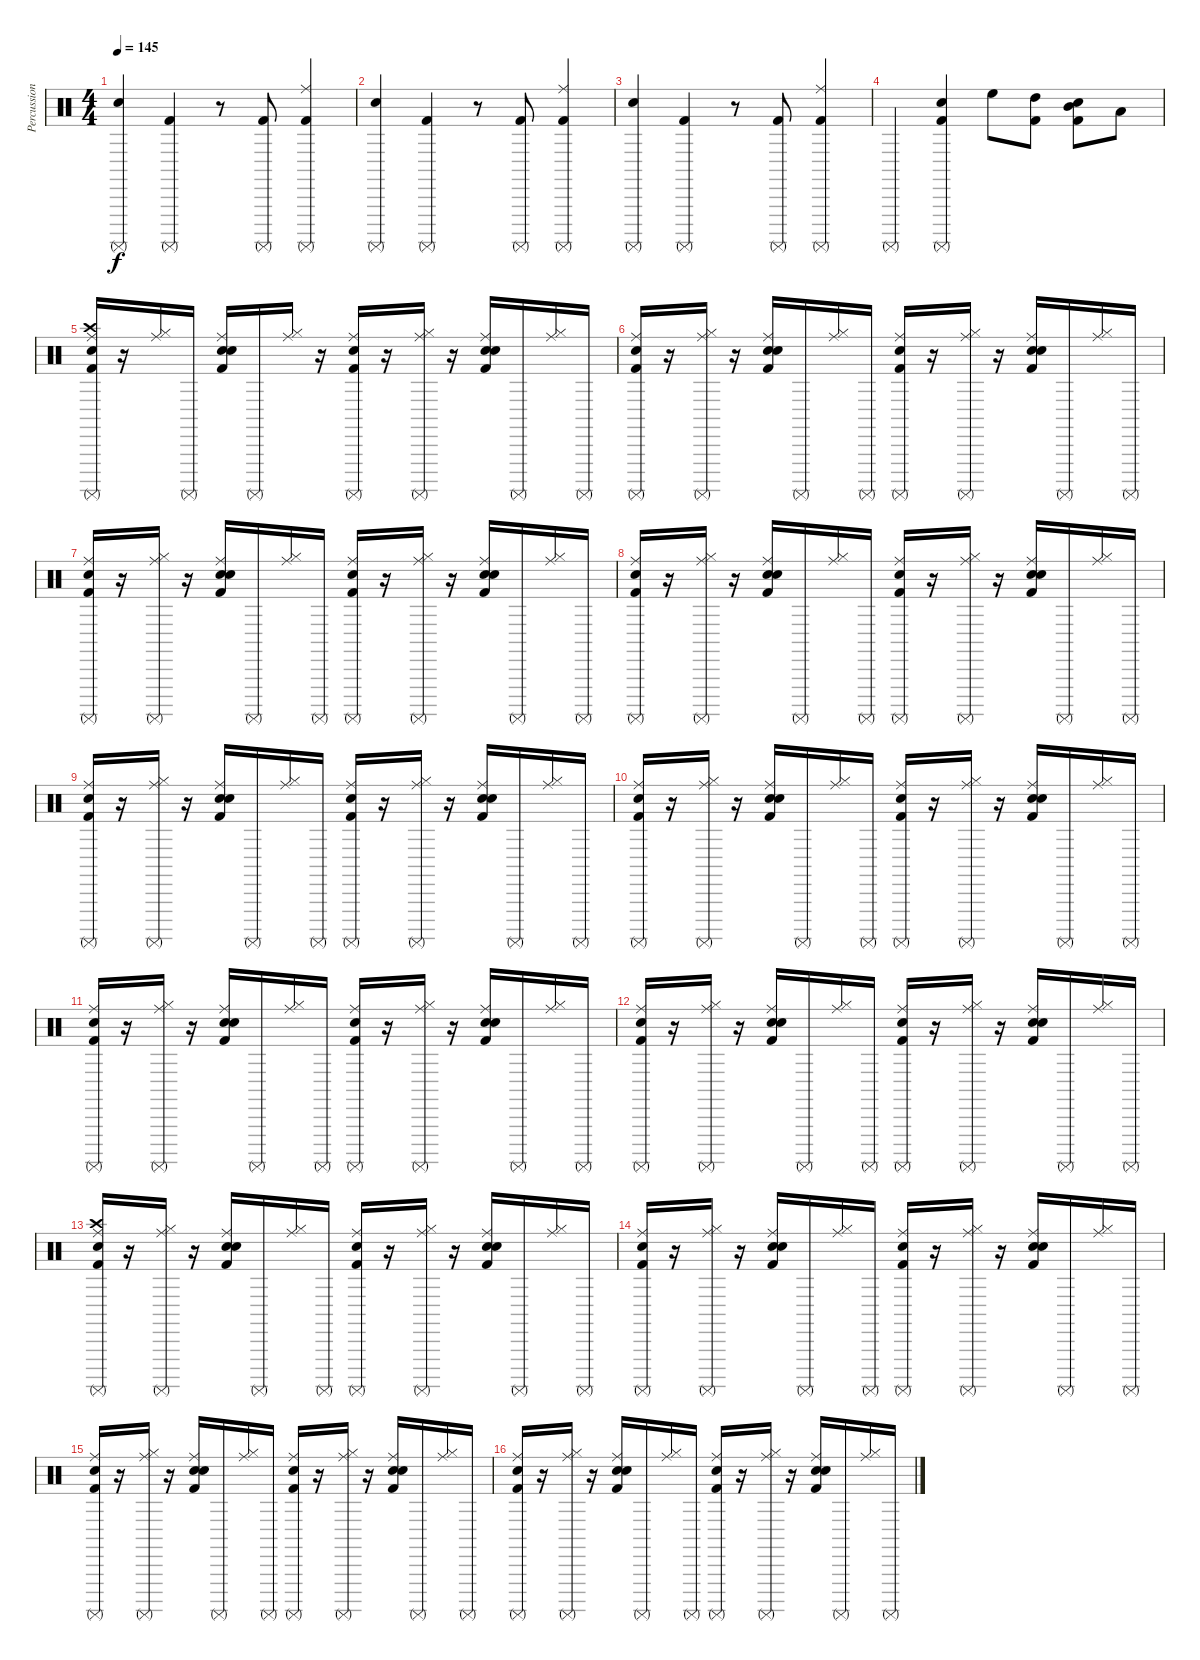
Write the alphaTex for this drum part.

\track ("Percussions" "Percussion") {instrument percussion}
\staff {score}
\articulation defaults
\ts (4 4)
\tempo 145
\clef neutral
\ks c
("Snare (hit) 2" "Surdo (mute)").4{dy f} ("Kick (hit) 2" "Surdo (mute)").4 r.8 ("Kick (hit) 2" "Surdo (mute)").8 ("Kick (hit) 2" "Surdo (mute)" "Ride (middle)").4 |
("Snare (hit) 2" "Surdo (mute)").4 ("Kick (hit) 2" "Surdo (mute)").4 r.8 ("Kick (hit) 2" "Surdo (mute)").8 ("Kick (hit) 2" "Surdo (mute)" "Ride (middle)").4 |
("Snare (hit) 2" "Surdo (mute)").4 ("Kick (hit) 2" "Surdo (mute)").4 r.8 ("Kick (hit) 2" "Surdo (mute)").8 ("Kick (hit) 2" "Surdo (mute)" "Ride (middle)").4 |
"Surdo (mute)".4 ("Kick (hit) 2" "Snare (hit) 2" "Surdo (mute)").4 "High Floor Tom (hit)".8 ("Kick (hit) 2" "High Tom (hit)").8 ("Kick (hit) 2" "Snare (hit) 2" "Mid Tom (hit)").8 "Low Tom (hit)".8 |
("Kick (hit) 2" "Snare (hit) 2" "Surdo (mute)" "Crash high (hit)" "Ride (middle)").16 r.16 ("Hi-Hat (closed)" "Ride (middle)").16 "Surdo (mute)".16 ("Kick (hit) 2" "Snare (hit) 2" "Hand Clap (hit)" "Ride (middle)").16 "Surdo (mute)".16 ("Hi-Hat (closed)" "Ride (middle)").16 r.16 ("Kick (hit) 2" "Snare (hit) 2" "Surdo (mute)" "Ride (middle)").16 r.16 ("Hi-Hat (closed)" "Surdo (mute)" "Ride (middle)").16 r.16 ("Kick (hit) 2" "Snare (hit) 2" "Hand Clap (hit)" "Ride (middle)").16 "Surdo (mute)".16 ("Hi-Hat (closed)" "Ride (middle)").16 "Surdo (mute)".16 |
("Kick (hit) 2" "Snare (hit) 2" "Surdo (mute)" "Ride (middle)").16 r.16 ("Hi-Hat (closed)" "Surdo (mute)" "Ride (middle)").16 r.16 ("Kick (hit) 2" "Snare (hit) 2" "Hand Clap (hit)" "Ride (middle)").16 "Surdo (mute)".16 ("Hi-Hat (closed)" "Ride (middle)").16 "Surdo (mute)".16 ("Kick (hit) 2" "Snare (hit) 2" "Surdo (mute)" "Ride (middle)").16 r.16 ("Hi-Hat (closed)" "Surdo (mute)" "Ride (middle)").16 r.16 ("Kick (hit) 2" "Snare (hit) 2" "Hand Clap (hit)" "Ride (middle)").16 "Surdo (mute)".16 ("Hi-Hat (closed)" "Ride (middle)").16 "Surdo (mute)".16 |
("Kick (hit) 2" "Snare (hit) 2" "Surdo (mute)" "Ride (middle)").16 r.16 ("Hi-Hat (closed)" "Surdo (mute)" "Ride (middle)").16 r.16 ("Kick (hit) 2" "Snare (hit) 2" "Hand Clap (hit)" "Ride (middle)").16 "Surdo (mute)".16 ("Hi-Hat (closed)" "Ride (middle)").16 "Surdo (mute)".16 ("Kick (hit) 2" "Snare (hit) 2" "Surdo (mute)" "Ride (middle)").16 r.16 ("Hi-Hat (closed)" "Surdo (mute)" "Ride (middle)").16 r.16 ("Kick (hit) 2" "Snare (hit) 2" "Hand Clap (hit)" "Ride (middle)").16 "Surdo (mute)".16 ("Hi-Hat (closed)" "Ride (middle)").16 "Surdo (mute)".16 |
("Kick (hit) 2" "Snare (hit) 2" "Surdo (mute)" "Ride (middle)").16 r.16 ("Hi-Hat (closed)" "Surdo (mute)" "Ride (middle)").16 r.16 ("Kick (hit) 2" "Snare (hit) 2" "Hand Clap (hit)" "Ride (middle)").16 "Surdo (mute)".16 ("Hi-Hat (closed)" "Ride (middle)").16 "Surdo (mute)".16 ("Kick (hit) 2" "Snare (hit) 2" "Surdo (mute)" "Ride (middle)").16 r.16 ("Hi-Hat (closed)" "Surdo (mute)" "Ride (middle)").16 r.16 ("Kick (hit) 2" "Snare (hit) 2" "Hand Clap (hit)" "Ride (middle)").16 "Surdo (mute)".16 ("Hi-Hat (closed)" "Ride (middle)").16 "Surdo (mute)".16 |
("Kick (hit) 2" "Snare (hit) 2" "Surdo (mute)" "Ride (middle)").16 r.16 ("Hi-Hat (closed)" "Surdo (mute)" "Ride (middle)").16 r.16 ("Kick (hit) 2" "Snare (hit) 2" "Hand Clap (hit)" "Ride (middle)").16 "Surdo (mute)".16 ("Hi-Hat (closed)" "Ride (middle)").16 "Surdo (mute)".16 ("Kick (hit) 2" "Snare (hit) 2" "Surdo (mute)" "Ride (middle)").16 r.16 ("Hi-Hat (closed)" "Surdo (mute)" "Ride (middle)").16 r.16 ("Kick (hit) 2" "Snare (hit) 2" "Hand Clap (hit)" "Ride (middle)").16 "Surdo (mute)".16 ("Hi-Hat (closed)" "Ride (middle)").16 "Surdo (mute)".16 |
("Kick (hit) 2" "Snare (hit) 2" "Surdo (mute)" "Ride (middle)").16 r.16 ("Hi-Hat (closed)" "Surdo (mute)" "Ride (middle)").16 r.16 ("Kick (hit) 2" "Snare (hit) 2" "Hand Clap (hit)" "Ride (middle)").16 "Surdo (mute)".16 ("Hi-Hat (closed)" "Ride (middle)").16 "Surdo (mute)".16 ("Kick (hit) 2" "Snare (hit) 2" "Surdo (mute)" "Ride (middle)").16 r.16 ("Hi-Hat (closed)" "Surdo (mute)" "Ride (middle)").16 r.16 ("Kick (hit) 2" "Snare (hit) 2" "Hand Clap (hit)" "Ride (middle)").16 "Surdo (mute)".16 ("Hi-Hat (closed)" "Ride (middle)").16 "Surdo (mute)".16 |
("Kick (hit) 2" "Snare (hit) 2" "Surdo (mute)" "Ride (middle)").16 r.16 ("Hi-Hat (closed)" "Surdo (mute)" "Ride (middle)").16 r.16 ("Kick (hit) 2" "Snare (hit) 2" "Hand Clap (hit)" "Ride (middle)").16 "Surdo (mute)".16 ("Hi-Hat (closed)" "Ride (middle)").16 "Surdo (mute)".16 ("Kick (hit) 2" "Snare (hit) 2" "Surdo (mute)" "Ride (middle)").16 r.16 ("Hi-Hat (closed)" "Surdo (mute)" "Ride (middle)").16 r.16 ("Kick (hit) 2" "Snare (hit) 2" "Hand Clap (hit)" "Ride (middle)").16 "Surdo (mute)".16 ("Hi-Hat (closed)" "Ride (middle)").16 "Surdo (mute)".16 |
("Kick (hit) 2" "Snare (hit) 2" "Surdo (mute)" "Ride (middle)").16 r.16 ("Hi-Hat (closed)" "Surdo (mute)" "Ride (middle)").16 r.16 ("Kick (hit) 2" "Snare (hit) 2" "Hand Clap (hit)" "Ride (middle)").16 "Surdo (mute)".16 ("Hi-Hat (closed)" "Ride (middle)").16 "Surdo (mute)".16 ("Kick (hit) 2" "Snare (hit) 2" "Surdo (mute)" "Ride (middle)").16 r.16 ("Hi-Hat (closed)" "Surdo (mute)" "Ride (middle)").16 r.16 ("Kick (hit) 2" "Snare (hit) 2" "Hand Clap (hit)" "Ride (middle)").16 "Surdo (mute)".16 ("Hi-Hat (closed)" "Ride (middle)").16 "Surdo (mute)".16 |
("Kick (hit) 2" "Snare (hit) 2" "Surdo (mute)" "Crash high (hit)" "Ride (middle)").16 r.16 ("Hi-Hat (closed)" "Surdo (mute)" "Ride (middle)").16 r.16 ("Kick (hit) 2" "Electric Snare (hit)" "Hand Clap (hit)" "Ride (middle)").16 "Surdo (mute)".16 ("Hi-Hat (closed)" "Ride (middle)").16 "Surdo (mute)".16 ("Kick (hit) 2" "Snare (hit) 2" "Surdo (mute)" "Ride (middle)").16 r.16 ("Hi-Hat (closed)" "Surdo (mute)" "Ride (middle)").16 r.16 ("Kick (hit) 2" "Electric Snare (hit)" "Hand Clap (hit)" "Ride (middle)").16 "Surdo (mute)".16 ("Hi-Hat (closed)" "Ride (middle)").16 "Surdo (mute)".16 |
("Kick (hit) 2" "Snare (hit) 2" "Surdo (mute)" "Ride (middle)").16 r.16 ("Hi-Hat (closed)" "Surdo (mute)" "Ride (middle)").16 r.16 ("Kick (hit) 2" "Electric Snare (hit)" "Hand Clap (hit)" "Ride (middle)").16 "Surdo (mute)".16 ("Hi-Hat (closed)" "Ride (middle)").16 "Surdo (mute)".16 ("Kick (hit) 2" "Snare (hit) 2" "Surdo (mute)" "Ride (middle)").16 r.16 ("Hi-Hat (closed)" "Surdo (mute)" "Ride (middle)").16 r.16 ("Kick (hit) 2" "Electric Snare (hit)" "Hand Clap (hit)" "Ride (middle)").16 "Surdo (mute)".16 ("Hi-Hat (closed)" "Ride (middle)").16 "Surdo (mute)".16 |
("Kick (hit) 2" "Snare (hit) 2" "Surdo (mute)" "Ride (middle)").16 r.16 ("Hi-Hat (closed)" "Surdo (mute)" "Ride (middle)").16 r.16 ("Kick (hit) 2" "Electric Snare (hit)" "Hand Clap (hit)" "Ride (middle)").16 "Surdo (mute)".16 ("Hi-Hat (closed)" "Ride (middle)").16 "Surdo (mute)".16 ("Kick (hit) 2" "Snare (hit) 2" "Surdo (mute)" "Ride (middle)").16 r.16 ("Hi-Hat (closed)" "Surdo (mute)" "Ride (middle)").16 r.16 ("Kick (hit) 2" "Electric Snare (hit)" "Hand Clap (hit)" "Ride (middle)").16 "Surdo (mute)".16 ("Hi-Hat (closed)" "Ride (middle)").16 "Surdo (mute)".16 |
("Kick (hit) 2" "Snare (hit) 2" "Surdo (mute)" "Ride (middle)").16 r.16 ("Hi-Hat (closed)" "Surdo (mute)" "Ride (middle)").16 r.16 ("Kick (hit) 2" "Electric Snare (hit)" "Hand Clap (hit)" "Ride (middle)").16 "Surdo (mute)".16 ("Hi-Hat (closed)" "Ride (middle)").16 "Surdo (mute)".16 ("Kick (hit) 2" "Snare (hit) 2" "Surdo (mute)" "Ride (middle)").16 r.16 ("Hi-Hat (closed)" "Surdo (mute)" "Ride (middle)").16 r.16 ("Kick (hit) 2" "Electric Snare (hit)" "Hand Clap (hit)" "Ride (middle)").16 "Surdo (mute)".16 ("Hi-Hat (closed)" "Ride (middle)").16 "Surdo (mute)".16
